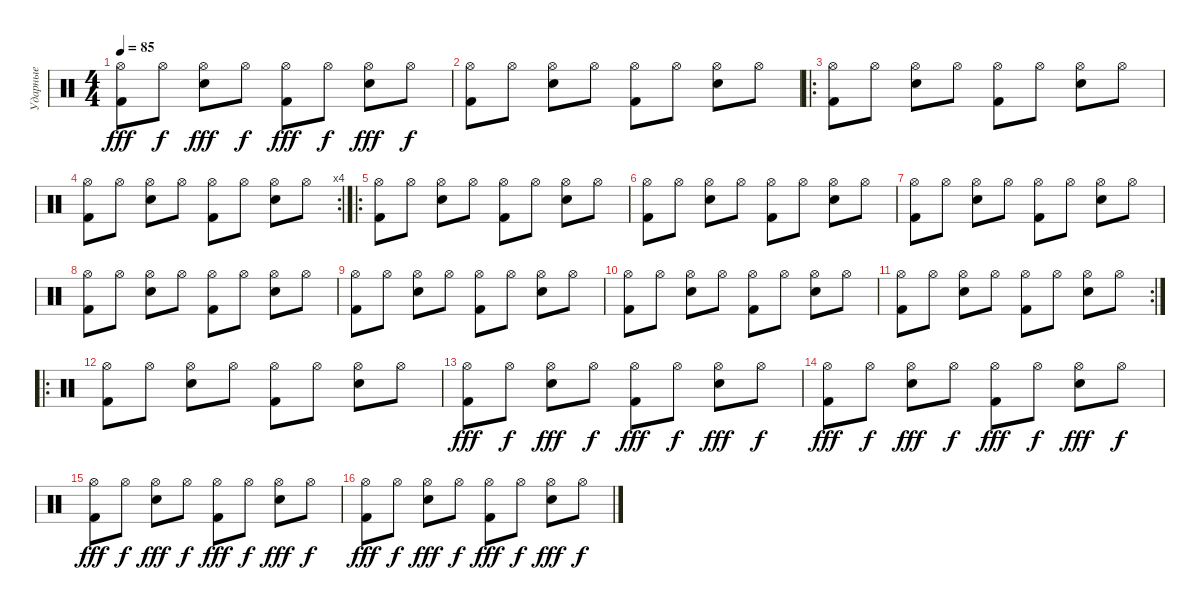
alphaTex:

\track ("Ударные" "Ударные") {instrument percussion}
\staff {score}
\articulation defaults
\ts (4 4)
\tempo 85
\clef neutral
\ks c
("Kick (hit) 2" "Hi-Hat (open)").8{dy fff} "Hi-Hat (open)".8{dy f} ("Snare (hit) 2" "Hi-Hat (open)").8{dy fff} "Hi-Hat (open)".8{dy f} ("Kick (hit) 2" "Hi-Hat (open)").8{dy fff} "Hi-Hat (open)".8{dy f} ("Snare (hit) 2" "Hi-Hat (open)").8{dy fff} "Hi-Hat (open)".8{dy f} |
("Kick (hit) 2" "Hi-Hat (open)").8 "Hi-Hat (open)".8 ("Snare (hit) 2" "Hi-Hat (open)").8 "Hi-Hat (open)".8 ("Kick (hit) 2" "Hi-Hat (open)").8 "Hi-Hat (open)".8 ("Snare (hit) 2" "Hi-Hat (open)").8 "Hi-Hat (open)".8 |
\ro
("Kick (hit) 2" "Hi-Hat (open)").8 "Hi-Hat (open)".8 ("Snare (hit) 2" "Hi-Hat (open)").8 "Hi-Hat (open)".8 ("Kick (hit) 2" "Hi-Hat (open)").8 "Hi-Hat (open)".8 ("Snare (hit) 2" "Hi-Hat (open)").8 "Hi-Hat (open)".8 |
\rc 4
("Kick (hit) 2" "Hi-Hat (open)").8 "Hi-Hat (open)".8 ("Snare (hit) 2" "Hi-Hat (open)").8 "Hi-Hat (open)".8 ("Kick (hit) 2" "Hi-Hat (open)").8 "Hi-Hat (open)".8 ("Snare (hit) 2" "Hi-Hat (open)").8 "Hi-Hat (open)".8 |
\ro
("Kick (hit) 2" "Hi-Hat (open)").8 "Hi-Hat (open)".8 ("Snare (hit) 2" "Hi-Hat (open)").8 "Hi-Hat (open)".8 ("Kick (hit) 2" "Hi-Hat (open)").8 "Hi-Hat (open)".8 ("Snare (hit) 2" "Hi-Hat (open)").8 "Hi-Hat (open)".8 |
("Kick (hit) 2" "Hi-Hat (open)").8 "Hi-Hat (open)".8 ("Snare (hit) 2" "Hi-Hat (open)").8 "Hi-Hat (open)".8 ("Kick (hit) 2" "Hi-Hat (open)").8 "Hi-Hat (open)".8 ("Snare (hit) 2" "Hi-Hat (open)").8 "Hi-Hat (open)".8 |
("Kick (hit) 2" "Hi-Hat (open)").8 "Hi-Hat (open)".8 ("Snare (hit) 2" "Hi-Hat (open)").8 "Hi-Hat (open)".8 ("Kick (hit) 2" "Hi-Hat (open)").8 "Hi-Hat (open)".8 ("Snare (hit) 2" "Hi-Hat (open)").8 "Hi-Hat (open)".8 |
("Kick (hit) 2" "Hi-Hat (open)").8 "Hi-Hat (open)".8 ("Snare (hit) 2" "Hi-Hat (open)").8 "Hi-Hat (open)".8 ("Kick (hit) 2" "Hi-Hat (open)").8 "Hi-Hat (open)".8 ("Snare (hit) 2" "Hi-Hat (open)").8 "Hi-Hat (open)".8 |
("Kick (hit) 2" "Hi-Hat (open)").8 "Hi-Hat (open)".8 ("Snare (hit) 2" "Hi-Hat (open)").8 "Hi-Hat (open)".8 ("Kick (hit) 2" "Hi-Hat (open)").8 "Hi-Hat (open)".8 ("Snare (hit) 2" "Hi-Hat (open)").8 "Hi-Hat (open)".8 |
("Kick (hit) 2" "Hi-Hat (open)").8 "Hi-Hat (open)".8 ("Snare (hit) 2" "Hi-Hat (open)").8 "Hi-Hat (open)".8 ("Kick (hit) 2" "Hi-Hat (open)").8 "Hi-Hat (open)".8 ("Snare (hit) 2" "Hi-Hat (open)").8 "Hi-Hat (open)".8 |
\rc 2
("Kick (hit) 2" "Hi-Hat (open)").8 "Hi-Hat (open)".8 ("Snare (hit) 2" "Hi-Hat (open)").8 "Hi-Hat (open)".8 ("Kick (hit) 2" "Hi-Hat (open)").8 "Hi-Hat (open)".8 ("Snare (hit) 2" "Hi-Hat (open)").8 "Hi-Hat (open)".8 |
\ro
("Kick (hit) 2" "Hi-Hat (open)").8 "Hi-Hat (open)".8 ("Snare (hit) 2" "Hi-Hat (open)").8 "Hi-Hat (open)".8 ("Kick (hit) 2" "Hi-Hat (open)").8 "Hi-Hat (open)".8 ("Snare (hit) 2" "Hi-Hat (open)").8 "Hi-Hat (open)".8 |
("Kick (hit) 2" "Hi-Hat (open)").8{dy fff} "Hi-Hat (open)".8{dy f} ("Snare (hit) 2" "Hi-Hat (open)").8{dy fff} "Hi-Hat (open)".8{dy f} ("Kick (hit) 2" "Hi-Hat (open)").8{dy fff} "Hi-Hat (open)".8{dy f} ("Snare (hit) 2" "Hi-Hat (open)").8{dy fff} "Hi-Hat (open)".8{dy f} |
("Kick (hit) 2" "Hi-Hat (open)").8{dy fff} "Hi-Hat (open)".8{dy f} ("Snare (hit) 2" "Hi-Hat (open)").8{dy fff} "Hi-Hat (open)".8{dy f} ("Kick (hit) 2" "Hi-Hat (open)").8{dy fff} "Hi-Hat (open)".8{dy f} ("Snare (hit) 2" "Hi-Hat (open)").8{dy fff} "Hi-Hat (open)".8{dy f} |
("Kick (hit) 2" "Hi-Hat (open)").8{dy fff} "Hi-Hat (open)".8{dy f} ("Snare (hit) 2" "Hi-Hat (open)").8{dy fff} "Hi-Hat (open)".8{dy f} ("Kick (hit) 2" "Hi-Hat (open)").8{dy fff} "Hi-Hat (open)".8{dy f} ("Snare (hit) 2" "Hi-Hat (open)").8{dy fff} "Hi-Hat (open)".8{dy f} |
("Kick (hit) 2" "Hi-Hat (open)").8{dy fff} "Hi-Hat (open)".8{dy f} ("Snare (hit) 2" "Hi-Hat (open)").8{dy fff} "Hi-Hat (open)".8{dy f} ("Kick (hit) 2" "Hi-Hat (open)").8{dy fff} "Hi-Hat (open)".8{dy f} ("Snare (hit) 2" "Hi-Hat (open)").8{dy fff} "Hi-Hat (open)".8{dy f}
